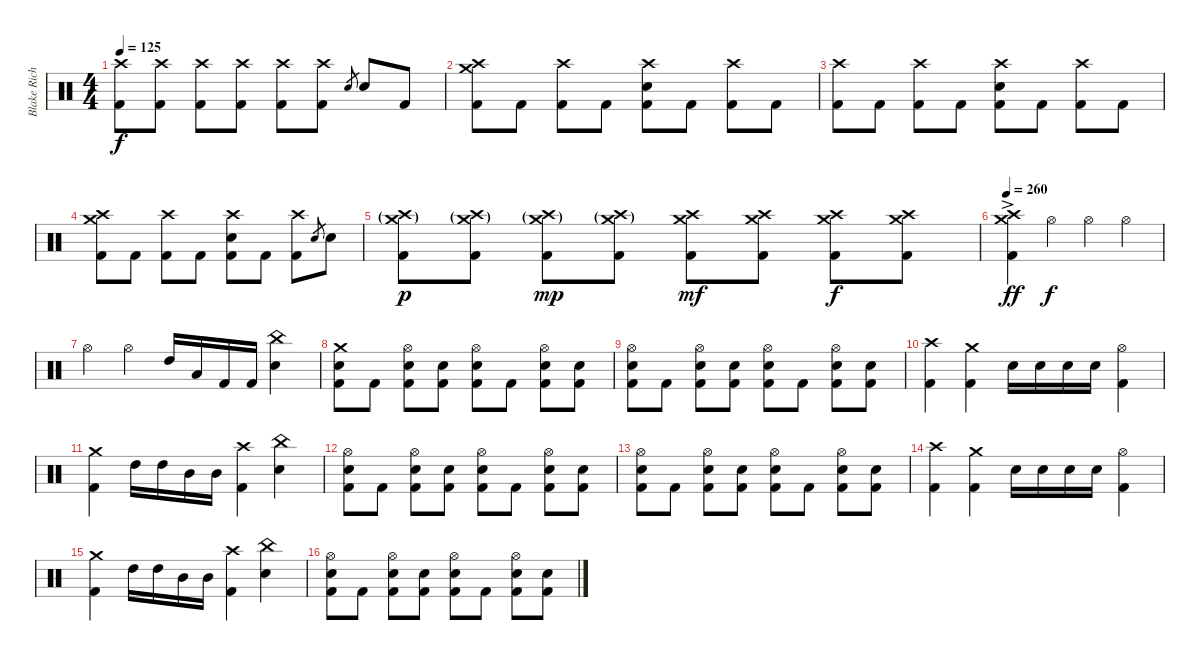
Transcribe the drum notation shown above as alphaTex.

\track ("Blake Richardson - Drums" "Blake Rich") {instrument percussion}
\staff {score}
\articulation defaults
\ts (4 4)
\tempo 125
\clef neutral
\ks c
("Crash high (hit)" "Kick (hit) 2").8{dy f} ("Crash high (hit)" "Kick (hit) 2").8 ("Crash high (hit)" "Kick (hit) 2").8 ("Crash high (hit)" "Kick (hit) 2").8 ("Crash high (hit)" "Kick (hit) 2").8 ("Crash high (hit)" "Kick (hit) 2").8 "Electric Snare (hit)".8{gr} "Electric Snare (hit)".8 "Kick (hit) 2".8 |
("Crash high (hit)" "Crash medium (hit)" "Kick (hit) 2").8 "Kick (hit) 2".8 ("Crash high (hit)" "Kick (hit) 2").8 "Kick (hit) 2".8 ("Crash high (hit)" "Electric Snare (hit)" "Kick (hit) 2").8 "Kick (hit) 2".8 ("Crash high (hit)" "Kick (hit) 2").8 "Kick (hit) 2".8 |
("Crash high (hit)" "Kick (hit) 2").8 "Kick (hit) 2".8 ("Crash high (hit)" "Kick (hit) 2").8 "Kick (hit) 2".8 ("Crash high (hit)" "Electric Snare (hit)" "Kick (hit) 2").8 "Kick (hit) 2".8 ("Crash high (hit)" "Kick (hit) 2").8 "Kick (hit) 2".8 |
("Crash high (hit)" "Crash medium (hit)" "Kick (hit) 2").8 "Kick (hit) 2".8 ("Crash high (hit)" "Kick (hit) 2").8 "Kick (hit) 2".8 ("Crash high (hit)" "Electric Snare (hit)" "Kick (hit) 2").8 "Kick (hit) 2".8 ("Crash high (hit)" "Kick (hit) 2").8 "Electric Snare (hit)".8{gr} "Electric Snare (hit)".8 |
("Crash high (hit)"{g} "Crash medium (hit)"{g} "Kick (hit) 2").8{dy p} ("Crash high (hit)"{g} "Crash medium (hit)"{g} "Kick (hit) 2").8 ("Crash high (hit)"{g} "Crash medium (hit)"{g} "Kick (hit) 2").8{dy mp} ("Crash high (hit)"{g} "Crash medium (hit)"{g} "Kick (hit) 2").8 ("Crash high (hit)" "Crash medium (hit)" "Kick (hit) 2").8{dy mf} ("Crash high (hit)" "Crash medium (hit)" "Kick (hit) 2").8 ("Crash high (hit)" "Crash medium (hit)" "Kick (hit) 2").8{dy f} ("Crash high (hit)" "Crash medium (hit)" "Kick (hit) 2").8 |
\tempo 260
("Crash high (hit)"{ac} "Crash medium (hit)"{ac} "Kick (hit) 2").4{dy ff} "Hi-Hat (open)".4{dy f} "Hi-Hat (open)".4 "Hi-Hat (open)".4 |
"Hi-Hat (open)".4 "Hi-Hat (open)".4 "High Tom (hit)".16 "Low Tom (hit)".16 "Kick (hit) 2".16 "Kick (hit) 2".16 ("China (hit)" "Electric Snare (hit)").4 |
("Crash medium (hit)" "Electric Snare (hit)" "Kick (hit) 2").8 "Kick (hit) 2".8 ("Hi-Hat (open)" "Electric Snare (hit)" "Kick (hit) 2").8 ("Electric Snare (hit)" "Kick (hit) 2").8 ("Hi-Hat (open)" "Electric Snare (hit)" "Kick (hit) 2").8 "Kick (hit) 2".8 ("Hi-Hat (open)" "Electric Snare (hit)" "Kick (hit) 2").8 ("Electric Snare (hit)" "Kick (hit) 2").8 |
("Hi-Hat (open)" "Electric Snare (hit)" "Kick (hit) 2").8 "Kick (hit) 2".8 ("Hi-Hat (open)" "Electric Snare (hit)" "Kick (hit) 2").8 ("Electric Snare (hit)" "Kick (hit) 2").8 ("Hi-Hat (open)" "Electric Snare (hit)" "Kick (hit) 2").8 "Kick (hit) 2".8 ("Hi-Hat (open)" "Electric Snare (hit)" "Kick (hit) 2").8 ("Electric Snare (hit)" "Kick (hit) 2").8 |
("Crash high (hit)" "Kick (hit) 2").4 ("Crash medium (hit)" "Kick (hit) 2").4 "Electric Snare (hit)".16 "Electric Snare (hit)".16 "Electric Snare (hit)".16 "Electric Snare (hit)".16 ("Hi-Hat (open)" "Kick (hit) 2").4 |
("Crash medium (hit)" "Kick (hit) 2").4 "High Tom (hit)".16 "High Tom (hit)".16 "Mid Tom (hit)".16 "Mid Tom (hit)".16 ("Crash high (hit)" "Kick (hit) 2").4 ("China (hit)" "Electric Snare (hit)").4 |
("Hi-Hat (open)" "Electric Snare (hit)" "Kick (hit) 2").8 "Kick (hit) 2".8 ("Hi-Hat (open)" "Electric Snare (hit)" "Kick (hit) 2").8 ("Electric Snare (hit)" "Kick (hit) 2").8 ("Hi-Hat (open)" "Electric Snare (hit)" "Kick (hit) 2").8 "Kick (hit) 2".8 ("Hi-Hat (open)" "Electric Snare (hit)" "Kick (hit) 2").8 ("Electric Snare (hit)" "Kick (hit) 2").8 |
("Hi-Hat (open)" "Electric Snare (hit)" "Kick (hit) 2").8 "Kick (hit) 2".8 ("Hi-Hat (open)" "Electric Snare (hit)" "Kick (hit) 2").8 ("Electric Snare (hit)" "Kick (hit) 2").8 ("Hi-Hat (open)" "Electric Snare (hit)" "Kick (hit) 2").8 "Kick (hit) 2".8 ("Hi-Hat (open)" "Electric Snare (hit)" "Kick (hit) 2").8 ("Electric Snare (hit)" "Kick (hit) 2").8 |
("Crash high (hit)" "Kick (hit) 2").4 ("Crash medium (hit)" "Kick (hit) 2").4 "Electric Snare (hit)".16 "Electric Snare (hit)".16 "Electric Snare (hit)".16 "Electric Snare (hit)".16 ("Hi-Hat (open)" "Kick (hit) 2").4 |
("Crash medium (hit)" "Kick (hit) 2").4 "High Tom (hit)".16 "High Tom (hit)".16 "Mid Tom (hit)".16 "Mid Tom (hit)".16 ("Crash high (hit)" "Kick (hit) 2").4 ("China (hit)" "Electric Snare (hit)").4 |
("Hi-Hat (open)" "Electric Snare (hit)" "Kick (hit) 2").8 "Kick (hit) 2".8 ("Hi-Hat (open)" "Electric Snare (hit)" "Kick (hit) 2").8 ("Electric Snare (hit)" "Kick (hit) 2").8 ("Hi-Hat (open)" "Electric Snare (hit)" "Kick (hit) 2").8 "Kick (hit) 2".8 ("Hi-Hat (open)" "Electric Snare (hit)" "Kick (hit) 2").8 ("Electric Snare (hit)" "Kick (hit) 2").8
